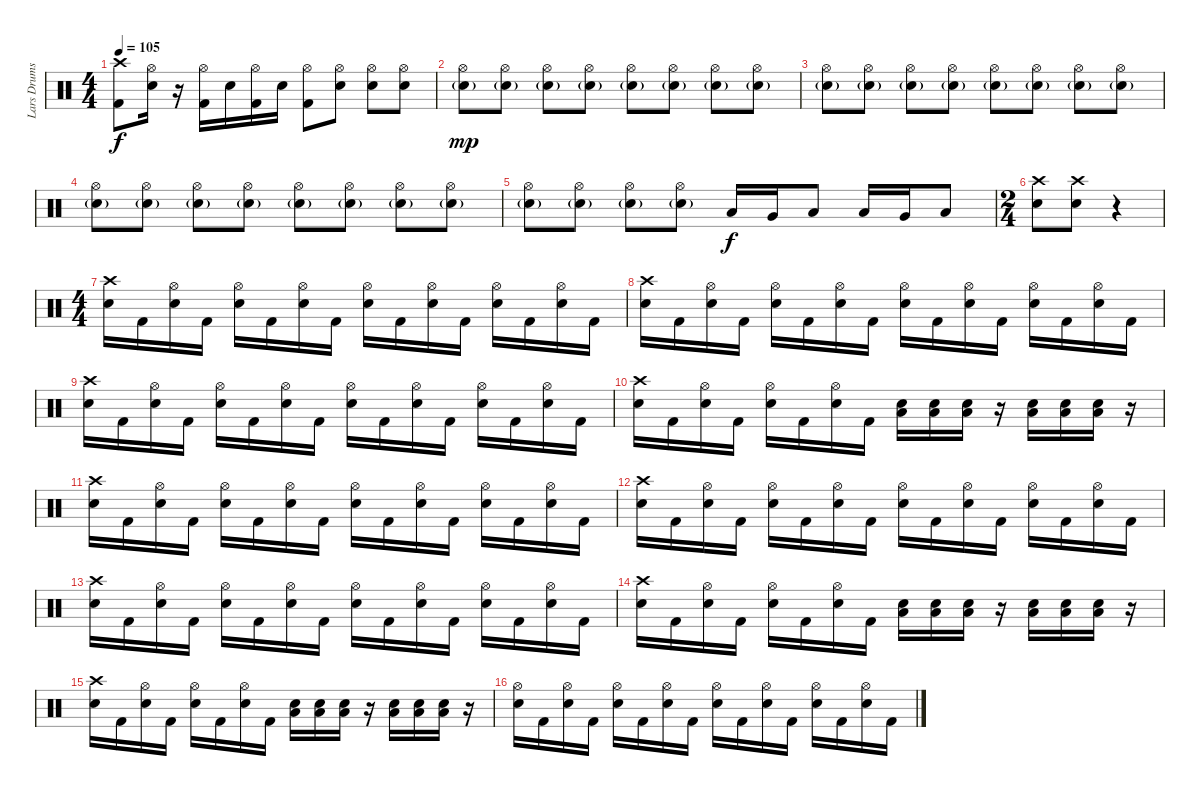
\track ("Lars Drums" "Lars Drums") {instrument percussion}
\staff {score}
\articulation defaults
\ts (4 4)
\tempo 105
\clef neutral
\ks c
("Crash high (hit)" "Kick (hit) 2").8{dy f} ("Hi-Hat (open)" "Snare (hit) 2").16 r.16 ("Hi-Hat (open)" "Kick (hit) 2").16 "Snare (hit) 2".16 ("Hi-Hat (open)" "Kick (hit) 2").16 "Snare (hit) 2".16 ("Hi-Hat (open)" "Kick (hit) 2").8 ("Hi-Hat (open)" "Snare (hit) 2").8 ("Hi-Hat (open)" "Snare (hit) 2").8 ("Hi-Hat (open)" "Snare (hit) 2").8 |
("Hi-Hat (open)" "Snare (hit) 2"{g}).8{dy mp} ("Hi-Hat (open)" "Snare (hit) 2"{g}).8 ("Hi-Hat (open)" "Snare (hit) 2"{g}).8 ("Hi-Hat (open)" "Snare (hit) 2"{g}).8 ("Hi-Hat (open)" "Snare (hit) 2"{g}).8 ("Hi-Hat (open)" "Snare (hit) 2"{g}).8 ("Hi-Hat (open)" "Snare (hit) 2"{g}).8 ("Hi-Hat (open)" "Snare (hit) 2"{g}).8 |
("Hi-Hat (open)" "Snare (hit) 2"{g}).8 ("Hi-Hat (open)" "Snare (hit) 2"{g}).8 ("Hi-Hat (open)" "Snare (hit) 2"{g}).8 ("Hi-Hat (open)" "Snare (hit) 2"{g}).8 ("Hi-Hat (open)" "Snare (hit) 2"{g}).8 ("Hi-Hat (open)" "Snare (hit) 2"{g}).8 ("Hi-Hat (open)" "Snare (hit) 2"{g}).8 ("Hi-Hat (open)" "Snare (hit) 2"{g}).8 |
("Hi-Hat (open)" "Snare (hit) 2"{g}).8 ("Hi-Hat (open)" "Snare (hit) 2"{g}).8 ("Hi-Hat (open)" "Snare (hit) 2"{g}).8 ("Hi-Hat (open)" "Snare (hit) 2"{g}).8 ("Hi-Hat (open)" "Snare (hit) 2"{g}).8 ("Hi-Hat (open)" "Snare (hit) 2"{g}).8 ("Hi-Hat (open)" "Snare (hit) 2"{g}).8 ("Hi-Hat (open)" "Snare (hit) 2"{g}).8 |
("Hi-Hat (open)" "Snare (hit) 2"{g}).8 ("Hi-Hat (open)" "Snare (hit) 2"{g}).8 ("Hi-Hat (open)" "Snare (hit) 2"{g}).8 ("Hi-Hat (open)" "Snare (hit) 2"{g}).8 "Low Floor Tom (hit)".16{dy f} "Very Low Tom (hit)".16 "Low Floor Tom (hit)".8 "Low Floor Tom (hit)".16 "Very Low Tom (hit)".16 "Low Floor Tom (hit)".8 |
\ts (2 4)
("Crash high (hit)" "Snare (hit) 2").8 ("Crash high (hit)" "Snare (hit) 2").8 r.4 |
\ts (4 4)
("Crash high (hit)" "Snare (hit) 2").16 "Kick (hit) 2".16 ("Hi-Hat (open)" "Snare (hit) 2").16 "Kick (hit) 2".16 ("Hi-Hat (open)" "Snare (hit) 2").16 "Kick (hit) 2".16 ("Hi-Hat (open)" "Snare (hit) 2").16 "Kick (hit) 2".16 ("Hi-Hat (open)" "Snare (hit) 2").16 "Kick (hit) 2".16 ("Hi-Hat (open)" "Snare (hit) 2").16 "Kick (hit) 2".16 ("Hi-Hat (open)" "Snare (hit) 2").16 "Kick (hit) 2".16 ("Hi-Hat (open)" "Snare (hit) 2").16 "Kick (hit) 2".16 |
("Crash high (hit)" "Snare (hit) 2").16 "Kick (hit) 2".16 ("Hi-Hat (open)" "Snare (hit) 2").16 "Kick (hit) 2".16 ("Hi-Hat (open)" "Snare (hit) 2").16 "Kick (hit) 2".16 ("Hi-Hat (open)" "Snare (hit) 2").16 "Kick (hit) 2".16 ("Hi-Hat (open)" "Snare (hit) 2").16 "Kick (hit) 2".16 ("Hi-Hat (open)" "Snare (hit) 2").16 "Kick (hit) 2".16 ("Hi-Hat (open)" "Snare (hit) 2").16 "Kick (hit) 2".16 ("Hi-Hat (open)" "Snare (hit) 2").16 "Kick (hit) 2".16 |
("Crash high (hit)" "Snare (hit) 2").16 "Kick (hit) 2".16 ("Hi-Hat (open)" "Snare (hit) 2").16 "Kick (hit) 2".16 ("Hi-Hat (open)" "Snare (hit) 2").16 "Kick (hit) 2".16 ("Hi-Hat (open)" "Snare (hit) 2").16 "Kick (hit) 2".16 ("Hi-Hat (open)" "Snare (hit) 2").16 "Kick (hit) 2".16 ("Hi-Hat (open)" "Snare (hit) 2").16 "Kick (hit) 2".16 ("Hi-Hat (open)" "Snare (hit) 2").16 "Kick (hit) 2".16 ("Hi-Hat (open)" "Snare (hit) 2").16 "Kick (hit) 2".16 |
("Crash high (hit)" "Snare (hit) 2").16 "Kick (hit) 2".16 ("Hi-Hat (open)" "Snare (hit) 2").16 "Kick (hit) 2".16 ("Hi-Hat (open)" "Snare (hit) 2").16 "Kick (hit) 2".16 ("Hi-Hat (open)" "Snare (hit) 2").16 "Kick (hit) 2".16 ("Snare (hit) 2" "Low Floor Tom (hit)").16 ("Snare (hit) 2" "Low Floor Tom (hit)").16 ("Snare (hit) 2" "Low Floor Tom (hit)").16 r.16 ("Snare (hit) 2" "Low Floor Tom (hit)").16 ("Snare (hit) 2" "Low Floor Tom (hit)").16 ("Snare (hit) 2" "Low Floor Tom (hit)").16 r.16 |
("Crash high (hit)" "Snare (hit) 2").16 "Kick (hit) 2".16 ("Hi-Hat (open)" "Snare (hit) 2").16 "Kick (hit) 2".16 ("Hi-Hat (open)" "Snare (hit) 2").16 "Kick (hit) 2".16 ("Hi-Hat (open)" "Snare (hit) 2").16 "Kick (hit) 2".16 ("Hi-Hat (open)" "Snare (hit) 2").16 "Kick (hit) 2".16 ("Hi-Hat (open)" "Snare (hit) 2").16 "Kick (hit) 2".16 ("Hi-Hat (open)" "Snare (hit) 2").16 "Kick (hit) 2".16 ("Hi-Hat (open)" "Snare (hit) 2").16 "Kick (hit) 2".16 |
("Crash high (hit)" "Snare (hit) 2").16 "Kick (hit) 2".16 ("Hi-Hat (open)" "Snare (hit) 2").16 "Kick (hit) 2".16 ("Hi-Hat (open)" "Snare (hit) 2").16 "Kick (hit) 2".16 ("Hi-Hat (open)" "Snare (hit) 2").16 "Kick (hit) 2".16 ("Hi-Hat (open)" "Snare (hit) 2").16 "Kick (hit) 2".16 ("Hi-Hat (open)" "Snare (hit) 2").16 "Kick (hit) 2".16 ("Hi-Hat (open)" "Snare (hit) 2").16 "Kick (hit) 2".16 ("Hi-Hat (open)" "Snare (hit) 2").16 "Kick (hit) 2".16 |
("Crash high (hit)" "Snare (hit) 2").16 "Kick (hit) 2".16 ("Hi-Hat (open)" "Snare (hit) 2").16 "Kick (hit) 2".16 ("Hi-Hat (open)" "Snare (hit) 2").16 "Kick (hit) 2".16 ("Hi-Hat (open)" "Snare (hit) 2").16 "Kick (hit) 2".16 ("Hi-Hat (open)" "Snare (hit) 2").16 "Kick (hit) 2".16 ("Hi-Hat (open)" "Snare (hit) 2").16 "Kick (hit) 2".16 ("Hi-Hat (open)" "Snare (hit) 2").16 "Kick (hit) 2".16 ("Hi-Hat (open)" "Snare (hit) 2").16 "Kick (hit) 2".16 |
("Crash high (hit)" "Snare (hit) 2").16 "Kick (hit) 2".16 ("Hi-Hat (open)" "Snare (hit) 2").16 "Kick (hit) 2".16 ("Hi-Hat (open)" "Snare (hit) 2").16 "Kick (hit) 2".16 ("Hi-Hat (open)" "Snare (hit) 2").16 "Kick (hit) 2".16 ("Snare (hit) 2" "Low Floor Tom (hit)").16 ("Snare (hit) 2" "Low Floor Tom (hit)").16 ("Snare (hit) 2" "Low Floor Tom (hit)").16 r.16 ("Snare (hit) 2" "Low Floor Tom (hit)").16 ("Snare (hit) 2" "Low Floor Tom (hit)").16 ("Snare (hit) 2" "Low Floor Tom (hit)").16 r.16 |
("Crash high (hit)" "Snare (hit) 2").16 "Kick (hit) 2".16 ("Hi-Hat (open)" "Snare (hit) 2").16 "Kick (hit) 2".16 ("Hi-Hat (open)" "Snare (hit) 2").16 "Kick (hit) 2".16 ("Hi-Hat (open)" "Snare (hit) 2").16 "Kick (hit) 2".16 ("Snare (hit) 2" "Low Floor Tom (hit)").16 ("Snare (hit) 2" "Low Floor Tom (hit)").16 ("Snare (hit) 2" "Low Floor Tom (hit)").16 r.16 ("Snare (hit) 2" "Low Floor Tom (hit)").16 ("Snare (hit) 2" "Low Floor Tom (hit)").16 ("Snare (hit) 2" "Low Floor Tom (hit)").16 r.16 |
("Hi-Hat (open)" "Snare (hit) 2").16 "Kick (hit) 2".16 ("Hi-Hat (open)" "Snare (hit) 2").16 "Kick (hit) 2".16 ("Hi-Hat (open)" "Snare (hit) 2").16 "Kick (hit) 2".16 ("Hi-Hat (open)" "Snare (hit) 2").16 "Kick (hit) 2".16 ("Hi-Hat (open)" "Snare (hit) 2").16 "Kick (hit) 2".16 ("Hi-Hat (open)" "Snare (hit) 2").16 "Kick (hit) 2".16 ("Hi-Hat (open)" "Snare (hit) 2").16 "Kick (hit) 2".16 ("Hi-Hat (open)" "Snare (hit) 2").16 "Kick (hit) 2".16
